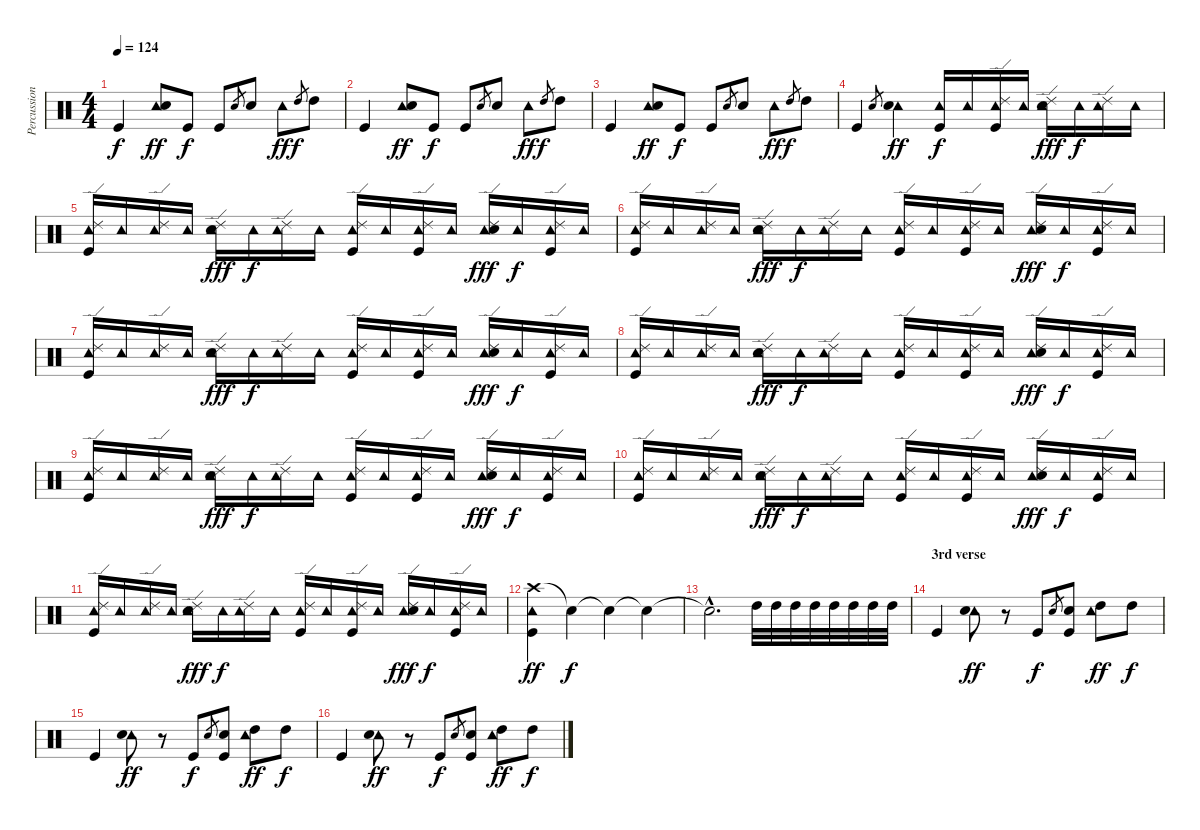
\track ("Percussion" "Percussion") {instrument percussion}
\staff {score}
\articulation defaults
\ts (4 4)
\tempo 124
\clef neutral
\ks c "Kick (hit)".4{dy f}
("Tambourine (hit)" "Snare (hit) 2").8{dy ff} "Kick (hit)".8{dy f} "Kick (hit)".8 "Snare (hit) 2".8{gr} "Snare (hit) 2".8 "Tambourine (hit)".8{dy ff} "High Tom (hit)".8{gr dy f} "High Tom (hit)".8 |
"Kick (hit)".4 ("Tambourine (hit)" "Snare (hit) 2").8{dy ff} "Kick (hit)".8{dy f} "Kick (hit)".8 "Snare (hit) 2".8{gr} "Snare (hit) 2".8 "Tambourine (hit)".8{dy ff} "High Tom (hit)".8{gr dy f} "High Tom (hit)".8 |
"Kick (hit)".4 ("Tambourine (hit)" "Snare (hit) 2").8{dy ff} "Kick (hit)".8{dy f} "Kick (hit)".8 "Snare (hit) 2".8{gr} "Snare (hit) 2".8 "Tambourine (hit)".8{dy ff} "High Tom (hit)".8{gr dy f} "High Tom (hit)".8 |
"Kick (hit)".4 "Snare (hit) 2".8{gr} ("Tambourine (hit)" "Snare (hit) 2").4{dy ff} ("Tambourine (hit)" "Kick (hit)").16{dy f} "Tambourine (hit)".16 ("Ride (edge) 2" "Tambourine (hit)" "Kick (hit)").16 "Tambourine (hit)".16 ("Ride (edge) 2" "Tambourine (hit)" "Snare (hit) 2").16{dy fff} "Tambourine (hit)".16{dy f} ("Ride (edge) 2" "Tambourine (hit)").16 "Tambourine (hit)".16 |
("Ride (edge) 2" "Tambourine (hit)" "Kick (hit)").16 "Tambourine (hit)".16 ("Ride (edge) 2" "Tambourine (hit)").16 "Tambourine (hit)".16 ("Ride (edge) 2" "Tambourine (hit)" "Snare (hit) 2").16{dy fff} "Tambourine (hit)".16{dy f} ("Ride (edge) 2" "Tambourine (hit)").16 "Tambourine (hit)".16 ("Ride (edge) 2" "Tambourine (hit)" "Kick (hit)").16 "Tambourine (hit)".16 ("Ride (edge) 2" "Tambourine (hit)" "Kick (hit)").16 "Tambourine (hit)".16 ("Ride (edge) 2" "Tambourine (hit)" "Snare (hit) 2").16{dy fff} "Tambourine (hit)".16{dy f} ("Ride (edge) 2" "Tambourine (hit)" "Kick (hit)").16 "Tambourine (hit)".16 |
("Ride (edge) 2" "Tambourine (hit)" "Kick (hit)").16 "Tambourine (hit)".16 ("Ride (edge) 2" "Tambourine (hit)").16 "Tambourine (hit)".16 ("Ride (edge) 2" "Tambourine (hit)" "Snare (hit) 2").16{dy fff} "Tambourine (hit)".16{dy f} ("Ride (edge) 2" "Tambourine (hit)").16 "Tambourine (hit)".16 ("Ride (edge) 2" "Tambourine (hit)" "Kick (hit)").16 "Tambourine (hit)".16 ("Ride (edge) 2" "Tambourine (hit)" "Kick (hit)").16 "Tambourine (hit)".16 ("Ride (edge) 2" "Tambourine (hit)" "Snare (hit) 2").16{dy fff} "Tambourine (hit)".16{dy f} ("Ride (edge) 2" "Tambourine (hit)" "Kick (hit)").16 "Tambourine (hit)".16 |
("Ride (edge) 2" "Tambourine (hit)" "Kick (hit)").16 "Tambourine (hit)".16 ("Ride (edge) 2" "Tambourine (hit)").16 "Tambourine (hit)".16 ("Ride (edge) 2" "Tambourine (hit)" "Snare (hit) 2").16{dy fff} "Tambourine (hit)".16{dy f} ("Ride (edge) 2" "Tambourine (hit)").16 "Tambourine (hit)".16 ("Ride (edge) 2" "Tambourine (hit)" "Kick (hit)").16 "Tambourine (hit)".16 ("Ride (edge) 2" "Tambourine (hit)" "Kick (hit)").16 "Tambourine (hit)".16 ("Ride (edge) 2" "Tambourine (hit)" "Snare (hit) 2").16{dy fff} "Tambourine (hit)".16{dy f} ("Ride (edge) 2" "Tambourine (hit)" "Kick (hit)").16 "Tambourine (hit)".16 |
("Ride (edge) 2" "Tambourine (hit)" "Kick (hit)").16 "Tambourine (hit)".16 ("Ride (edge) 2" "Tambourine (hit)").16 "Tambourine (hit)".16 ("Ride (edge) 2" "Tambourine (hit)" "Snare (hit) 2").16{dy fff} "Tambourine (hit)".16{dy f} ("Ride (edge) 2" "Tambourine (hit)").16 "Tambourine (hit)".16 ("Ride (edge) 2" "Tambourine (hit)" "Kick (hit)").16 "Tambourine (hit)".16 ("Ride (edge) 2" "Tambourine (hit)" "Kick (hit)").16 "Tambourine (hit)".16 ("Ride (edge) 2" "Tambourine (hit)" "Snare (hit) 2").16{dy fff} "Tambourine (hit)".16{dy f} ("Ride (edge) 2" "Tambourine (hit)" "Kick (hit)").16 "Tambourine (hit)".16 |
("Ride (edge) 2" "Tambourine (hit)" "Kick (hit)").16 "Tambourine (hit)".16 ("Ride (edge) 2" "Tambourine (hit)").16 "Tambourine (hit)".16 ("Ride (edge) 2" "Tambourine (hit)" "Snare (hit) 2").16{dy fff} "Tambourine (hit)".16{dy f} ("Ride (edge) 2" "Tambourine (hit)").16 "Tambourine (hit)".16 ("Ride (edge) 2" "Tambourine (hit)" "Kick (hit)").16 "Tambourine (hit)".16 ("Ride (edge) 2" "Tambourine (hit)" "Kick (hit)").16 "Tambourine (hit)".16 ("Ride (edge) 2" "Tambourine (hit)" "Snare (hit) 2").16{dy fff} "Tambourine (hit)".16{dy f} ("Ride (edge) 2" "Tambourine (hit)" "Kick (hit)").16 "Tambourine (hit)".16 |
("Ride (edge) 2" "Tambourine (hit)" "Kick (hit)").16 "Tambourine (hit)".16 ("Ride (edge) 2" "Tambourine (hit)").16 "Tambourine (hit)".16 ("Ride (edge) 2" "Tambourine (hit)" "Snare (hit) 2").16{dy fff} "Tambourine (hit)".16{dy f} ("Ride (edge) 2" "Tambourine (hit)").16 "Tambourine (hit)".16 ("Ride (edge) 2" "Tambourine (hit)" "Kick (hit)").16 "Tambourine (hit)".16 ("Ride (edge) 2" "Tambourine (hit)" "Kick (hit)").16 "Tambourine (hit)".16 ("Ride (edge) 2" "Tambourine (hit)" "Snare (hit) 2").16{dy fff} "Tambourine (hit)".16{dy f} ("Ride (edge) 2" "Tambourine (hit)" "Kick (hit)").16 "Tambourine (hit)".16 |
("Ride (edge) 2" "Tambourine (hit)" "Kick (hit)").16 "Tambourine (hit)".16 ("Ride (edge) 2" "Tambourine (hit)").16 "Tambourine (hit)".16 ("Ride (edge) 2" "Tambourine (hit)" "Snare (hit) 2").16{dy fff} "Tambourine (hit)".16{dy f} ("Ride (edge) 2" "Tambourine (hit)").16 "Tambourine (hit)".16 ("Ride (edge) 2" "Tambourine (hit)" "Kick (hit)").16 "Tambourine (hit)".16 ("Ride (edge) 2" "Tambourine (hit)" "Kick (hit)").16 "Tambourine (hit)".16 ("Ride (edge) 2" "Tambourine (hit)" "Snare (hit) 2").16{dy fff} "Tambourine (hit)".16{dy f} ("Ride (edge) 2" "Tambourine (hit)" "Kick (hit)").16 "Tambourine (hit)".16 |
("Crash high (hit)" "Tambourine (hit)" "Kick (hit)").4{dy ff} "Snare (hit)"{t}.4{dy f} "Snare (hit)"{t}.4 "Snare (hit)"{t}.4 |
"Snare (hit)"{hac t}.2{d} "High Tom (hit)".32 "High Tom (hit)".32 "High Tom (hit)".32 "High Tom (hit)".32 "High Tom (hit)".32 "High Tom (hit)".32 "High Tom (hit)".32 "High Tom (hit)".32 |
\section ("" "3rd verse")
"Kick (hit)".4 ("Tambourine (hit)" "Snare (hit) 2").8{dy ff} r.8 "Kick (hit)".8{dy f} "Snare (hit) 2".8{gr} ("Snare (hit) 2" "Kick (hit)").8 ("Tambourine (hit)" "High Tom (hit)").8{dy ff} "High Tom (hit)".8{dy f} |
"Kick (hit)".4 ("Tambourine (hit)" "Snare (hit) 2").8{dy ff} r.8 "Kick (hit)".8{dy f} "Snare (hit) 2".8{gr} ("Snare (hit) 2" "Kick (hit)").8 ("Tambourine (hit)" "High Tom (hit)").8{dy ff} "High Tom (hit)".8{dy f} |
"Kick (hit)".4 ("Tambourine (hit)" "Snare (hit) 2").8{dy ff} r.8 "Kick (hit)".8{dy f} "Snare (hit) 2".8{gr} ("Snare (hit) 2" "Kick (hit)").8 ("Tambourine (hit)" "High Tom (hit)").8{dy ff} "High Tom (hit)".8{dy f}
